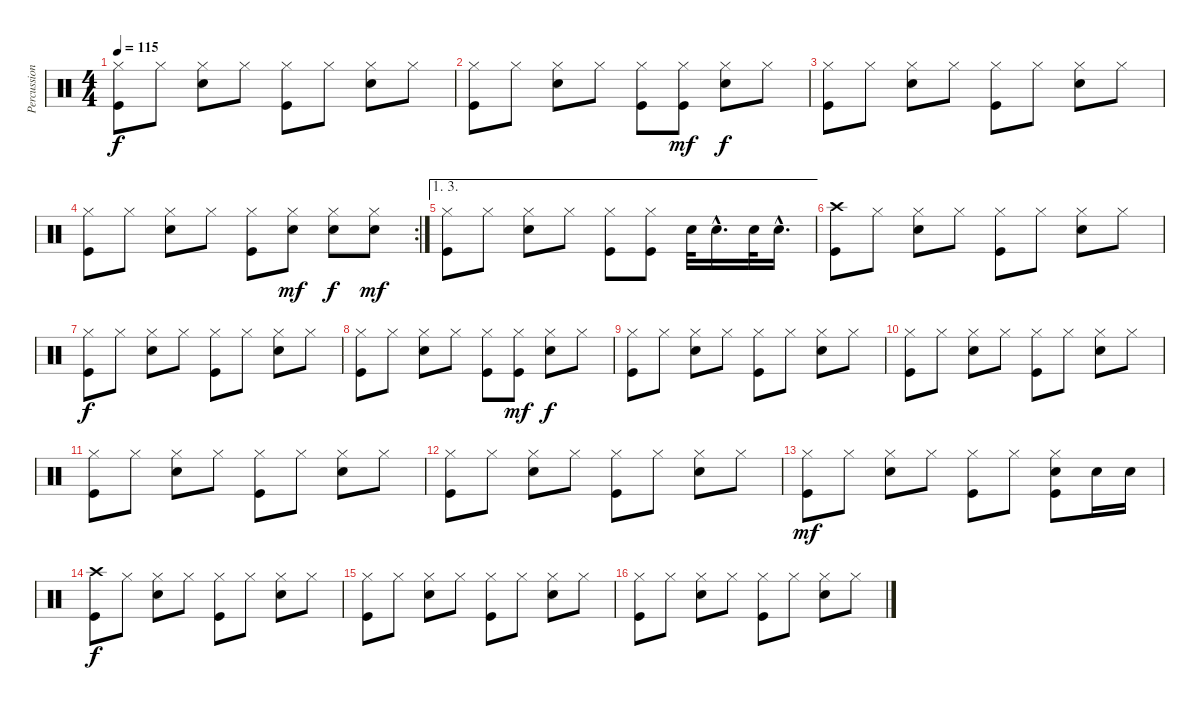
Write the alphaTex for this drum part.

\track ("Percussion" "Percussion") {instrument percussion}
\staff {score}
\articulation defaults
\ts (4 4)
\tempo 115
\clef neutral
\ks c
("Hi-Hat (closed)" "Kick (hit)").8{dy f} "Hi-Hat (closed)".8 ("Hi-Hat (closed)" "Snare (hit) 2").8 "Hi-Hat (closed)".8 ("Hi-Hat (closed)" "Kick (hit)").8 "Hi-Hat (closed)".8 ("Hi-Hat (closed)" "Snare (hit) 2").8 "Hi-Hat (closed)".8 |
("Hi-Hat (closed)" "Kick (hit)").8 "Hi-Hat (closed)".8 ("Hi-Hat (closed)" "Snare (hit) 2").8 "Hi-Hat (closed)".8 ("Hi-Hat (closed)" "Kick (hit)").8 ("Hi-Hat (closed)" "Kick (hit)").8{dy mf} ("Hi-Hat (closed)" "Snare (hit) 2").8{dy f} "Hi-Hat (closed)".8 |
("Hi-Hat (closed)" "Kick (hit)").8 "Hi-Hat (closed)".8 ("Hi-Hat (closed)" "Snare (hit) 2").8 "Hi-Hat (closed)".8 ("Hi-Hat (closed)" "Kick (hit)").8 "Hi-Hat (closed)".8 ("Hi-Hat (closed)" "Snare (hit) 2").8 "Hi-Hat (closed)".8 |
\rc 2
("Hi-Hat (closed)" "Kick (hit)").8 "Hi-Hat (closed)".8 ("Hi-Hat (closed)" "Snare (hit) 2").8 "Hi-Hat (closed)".8 ("Hi-Hat (closed)" "Kick (hit)").8 ("Hi-Hat (closed)" "Snare (hit) 2").8{dy mf} ("Hi-Hat (closed)" "Snare (hit) 2").8{dy f} ("Hi-Hat (closed)" "Snare (hit) 2").8{dy mf} |
\ae (1 3)
("Hi-Hat (closed)" "Kick (hit)").8 "Hi-Hat (closed)".8 ("Hi-Hat (closed)" "Snare (hit) 2").8 "Hi-Hat (closed)".8 ("Hi-Hat (closed)" "Kick (hit)").8 ("Hi-Hat (closed)" "Kick (hit)").8 "Snare (hit) 2".32 "Snare (hit) 2"{hac}.16{d} "Snare (hit) 2".32 "Snare (hit) 2"{hac}.16{d} |
("Crash high (hit)" "Kick (hit)").8 "Hi-Hat (closed)".8 ("Hi-Hat (closed)" "Snare (hit) 2").8 "Hi-Hat (closed)".8 ("Hi-Hat (closed)" "Kick (hit)").8 "Hi-Hat (closed)".8 ("Hi-Hat (closed)" "Snare (hit) 2").8 "Hi-Hat (closed)".8 |
("Hi-Hat (closed)" "Kick (hit)").8{dy f} "Hi-Hat (closed)".8 ("Hi-Hat (closed)" "Snare (hit) 2").8 "Hi-Hat (closed)".8 ("Hi-Hat (closed)" "Kick (hit)").8 "Hi-Hat (closed)".8 ("Hi-Hat (closed)" "Snare (hit) 2").8 "Hi-Hat (closed)".8 |
("Hi-Hat (closed)" "Kick (hit)").8 "Hi-Hat (closed)".8 ("Hi-Hat (closed)" "Snare (hit) 2").8 "Hi-Hat (closed)".8 ("Hi-Hat (closed)" "Kick (hit)").8 ("Hi-Hat (closed)" "Kick (hit)").8{dy mf} ("Hi-Hat (closed)" "Snare (hit) 2").8{dy f} "Hi-Hat (closed)".8 |
("Hi-Hat (closed)" "Kick (hit)").8 "Hi-Hat (closed)".8 ("Hi-Hat (closed)" "Snare (hit) 2").8 "Hi-Hat (closed)".8 ("Hi-Hat (closed)" "Kick (hit)").8 "Hi-Hat (closed)".8 ("Hi-Hat (closed)" "Snare (hit) 2").8 "Hi-Hat (closed)".8 |
("Hi-Hat (closed)" "Kick (hit)").8 "Hi-Hat (closed)".8 ("Hi-Hat (closed)" "Snare (hit) 2").8 "Hi-Hat (closed)".8 ("Hi-Hat (closed)" "Kick (hit)").8 "Hi-Hat (closed)".8 ("Hi-Hat (closed)" "Snare (hit) 2").8 "Hi-Hat (closed)".8 |
("Hi-Hat (closed)" "Kick (hit)").8 "Hi-Hat (closed)".8 ("Hi-Hat (closed)" "Snare (hit) 2").8 "Hi-Hat (closed)".8 ("Hi-Hat (closed)" "Kick (hit)").8 "Hi-Hat (closed)".8 ("Hi-Hat (closed)" "Snare (hit) 2").8 "Hi-Hat (closed)".8 |
("Hi-Hat (closed)" "Kick (hit)").8 "Hi-Hat (closed)".8 ("Hi-Hat (closed)" "Snare (hit) 2").8 "Hi-Hat (closed)".8 ("Hi-Hat (closed)" "Kick (hit)").8 "Hi-Hat (closed)".8 ("Hi-Hat (closed)" "Snare (hit) 2").8 "Hi-Hat (closed)".8 |
("Hi-Hat (closed)" "Kick (hit)").8{dy mf} "Hi-Hat (closed)".8 ("Hi-Hat (closed)" "Snare (hit) 2").8 "Hi-Hat (closed)".8 ("Hi-Hat (closed)" "Kick (hit)").8 "Hi-Hat (closed)".8 ("Hi-Hat (closed)" "Snare (hit) 2" "Kick (hit)").8 "Snare (hit) 2".16 "Snare (hit) 2".16 |
("Crash high (hit)" "Kick (hit)").8{dy f} "Hi-Hat (closed)".8 ("Hi-Hat (closed)" "Snare (hit) 2").8 "Hi-Hat (closed)".8 ("Hi-Hat (closed)" "Kick (hit)").8 "Hi-Hat (closed)".8 ("Hi-Hat (closed)" "Snare (hit) 2").8 "Hi-Hat (closed)".8 |
("Hi-Hat (closed)" "Kick (hit)").8 "Hi-Hat (closed)".8 ("Hi-Hat (closed)" "Snare (hit) 2").8 "Hi-Hat (closed)".8 ("Hi-Hat (closed)" "Kick (hit)").8 "Hi-Hat (closed)".8 ("Hi-Hat (closed)" "Snare (hit) 2").8 "Hi-Hat (closed)".8 |
("Hi-Hat (closed)" "Kick (hit)").8 "Hi-Hat (closed)".8 ("Hi-Hat (closed)" "Snare (hit) 2").8 "Hi-Hat (closed)".8 ("Hi-Hat (closed)" "Kick (hit)").8 "Hi-Hat (closed)".8 ("Hi-Hat (closed)" "Snare (hit) 2").8 "Hi-Hat (closed)".8
